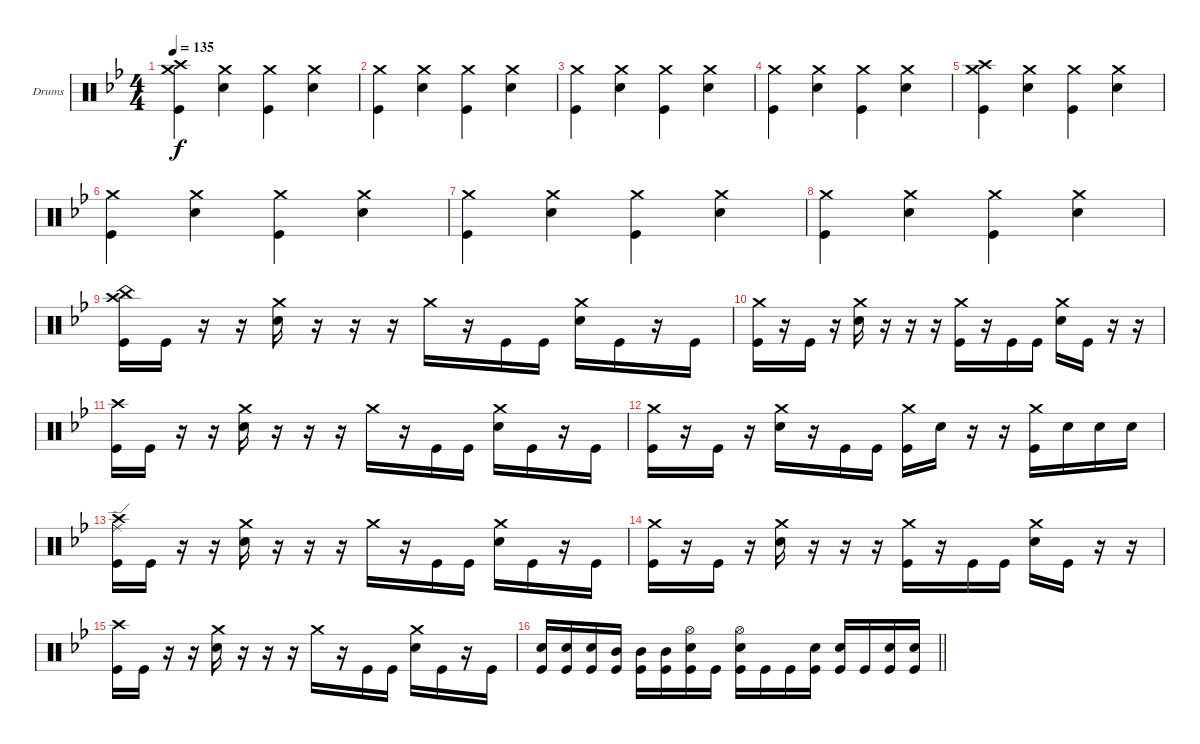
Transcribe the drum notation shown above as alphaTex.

\bracketExtendMode groupsimilarinstruments
\firstSystemTrackNameOrientation horizontal
\otherSystemsTrackNameOrientation horizontal
\track ("Drumkit" "Drums") {instrument percussion}
\staff {score}
\articulation defaults
\ts (4 4)
\tempo 135
\clef neutral
\ks gminor
("Crash high (hit)" "Crash medium (hit)" "Kick (hit)").4{dy f} ("Crash medium (hit)" "Snare (hit) 2").4 ("Crash medium (hit)" "Kick (hit)").4 ("Crash medium (hit)" "Snare (hit) 2").4 |
("Crash medium (hit)" "Kick (hit)").4 ("Crash medium (hit)" "Snare (hit) 2").4 ("Crash medium (hit)" "Kick (hit)").4 ("Crash medium (hit)" "Snare (hit) 2").4 |
("Crash medium (hit)" "Kick (hit)").4 ("Crash medium (hit)" "Snare (hit) 2").4 ("Crash medium (hit)" "Kick (hit)").4 ("Crash medium (hit)" "Snare (hit) 2").4 |
("Crash medium (hit)" "Kick (hit)").4 ("Crash medium (hit)" "Snare (hit) 2").4 ("Crash medium (hit)" "Kick (hit)").4 ("Crash medium (hit)" "Snare (hit) 2").4 |
("Crash high (hit)" "Crash medium (hit)" "Kick (hit)").4 ("Crash medium (hit)" "Snare (hit) 2").4 ("Crash medium (hit)" "Kick (hit)").4 ("Crash medium (hit)" "Snare (hit) 2").4 |
("Crash medium (hit)" "Kick (hit)").4 ("Crash medium (hit)" "Snare (hit) 2").4 ("Crash medium (hit)" "Kick (hit)").4 ("Crash medium (hit)" "Snare (hit) 2").4 |
("Crash medium (hit)" "Kick (hit)").4 ("Crash medium (hit)" "Snare (hit) 2").4 ("Crash medium (hit)" "Kick (hit)").4 ("Crash medium (hit)" "Snare (hit) 2").4 |
("Crash medium (hit)" "Kick (hit)").4 ("Crash medium (hit)" "Snare (hit) 2").4 ("Crash medium (hit)" "Kick (hit)").4 ("Crash medium (hit)" "Snare (hit) 2").4 |
("Crash high (hit)" "China (hit)" "Kick (hit)").16 "Kick (hit)".16 r.16 r.16 ("Crash medium (hit)" "Snare (hit) 2").16 r.16 r.16 r.16 "Crash medium (hit)".16 r.16 "Kick (hit)".16 "Kick (hit)".16 ("Crash medium (hit)" "Snare (hit) 2").16 "Kick (hit)".16 r.16 "Kick (hit)".16 |
("Crash medium (hit)" "Kick (hit)").16 r.16 "Kick (hit)".16 r.16 ("Crash medium (hit)" "Snare (hit) 2").16 r.16 r.16 r.16 ("Crash medium (hit)" "Kick (hit)").16 r.16 "Kick (hit)".16 "Kick (hit)".16 ("Crash medium (hit)" "Snare (hit) 2").16 "Kick (hit)".16 r.16 r.16 |
("Crash high (hit)" "Kick (hit)").16 "Kick (hit)".16 r.16 r.16 ("Crash medium (hit)" "Snare (hit) 2").16 r.16 r.16 r.16 "Crash medium (hit)".16 r.16 "Kick (hit)".16 "Kick (hit)".16 ("Crash medium (hit)" "Snare (hit) 2").16 "Kick (hit)".16 r.16 "Kick (hit)".16 |
("Crash medium (hit)" "Kick (hit)").16 r.16 "Kick (hit)".16 r.16 ("Crash medium (hit)" "Snare (hit) 2").16 r.16 "Kick (hit)".16 "Kick (hit)".16 ("Crash medium (hit)" "Kick (hit)").16 "Snare (hit) 2".16 r.16 r.16 ("Crash medium (hit)" "Kick (hit)").16 "Snare (hit) 2".16 "Snare (hit) 2".16 "Snare (hit) 2".16 |
("Crash high (hit)" "Ride (edge)" "Kick (hit)").16 "Kick (hit)".16 r.16 r.16 ("Crash medium (hit)" "Snare (hit) 2").16 r.16 r.16 r.16 "Crash medium (hit)".16 r.16 "Kick (hit)".16 "Kick (hit)".16 ("Crash medium (hit)" "Snare (hit) 2").16 "Kick (hit)".16 r.16 "Kick (hit)".16 |
("Crash medium (hit)" "Kick (hit)").16 r.16 "Kick (hit)".16 r.16 ("Crash medium (hit)" "Snare (hit) 2").16 r.16 r.16 r.16 ("Crash medium (hit)" "Kick (hit)").16 r.16 "Kick (hit)".16 "Kick (hit)".16 ("Crash medium (hit)" "Snare (hit) 2").16 "Kick (hit)".16 r.16 r.16 |
("Crash high (hit)" "Kick (hit)").16 "Kick (hit)".16 r.16 r.16 ("Crash medium (hit)" "Snare (hit) 2").16 r.16 r.16 r.16 "Crash medium (hit)".16 r.16 "Kick (hit)".16 "Kick (hit)".16 ("Crash medium (hit)" "Snare (hit) 2").16 "Kick (hit)".16 r.16 "Kick (hit)".16 |
\barLineRight lightlight
("Snare (hit) 2" "Kick (hit)").16 ("Snare (hit) 2" "Kick (hit)").16 ("Snare (hit) 2" "Kick (hit)").16 ("Mid Tom (hit)" "Kick (hit)").16 ("Mid Tom (hit)" "Kick (hit)").16 ("Mid Tom (hit)" "Kick (hit)").16 ("Hi-Hat (open)" "Snare (hit) 2" "Kick (hit)").16 "Kick (hit)".16 ("Hi-Hat (open)" "Snare (hit) 2" "Kick (hit)").16 "Kick (hit)".16 "Kick (hit)".16 ("Snare (hit) 2" "Kick (hit)").16 ("Snare (hit) 2" "Kick (hit)").16 "Kick (hit)".16 ("Snare (hit) 2" "Kick (hit)").16 ("Snare (hit) 2" "Kick (hit)").16
